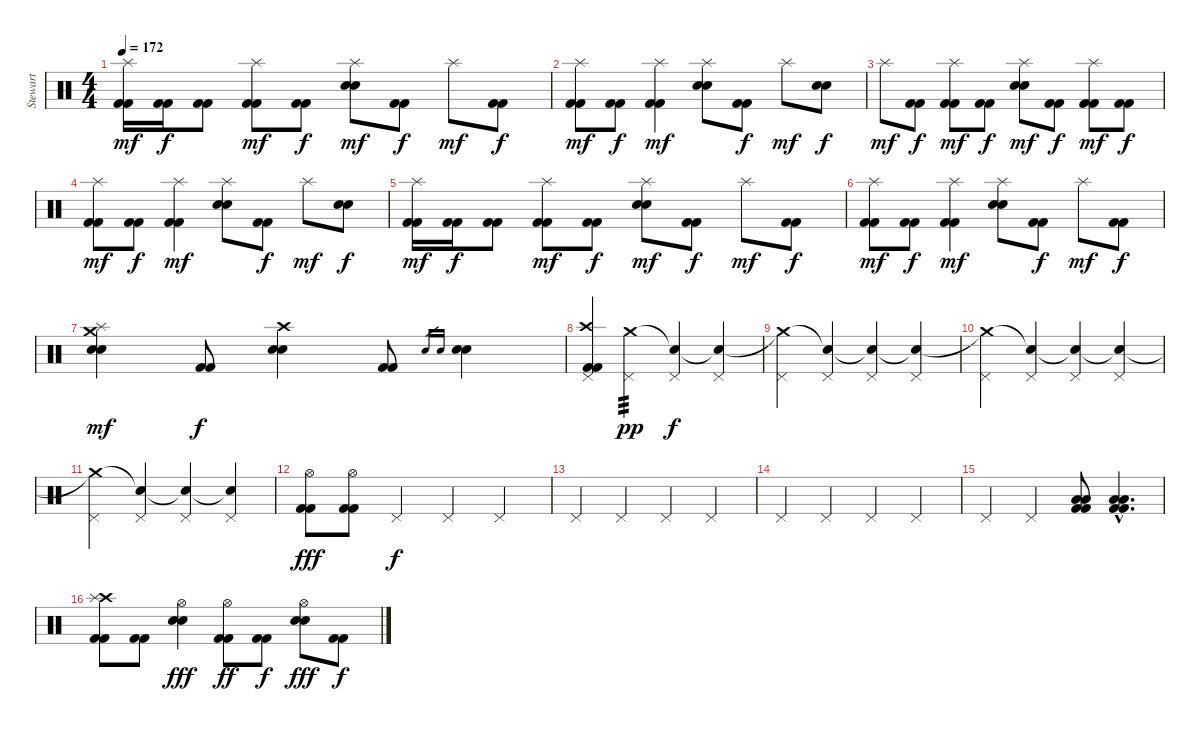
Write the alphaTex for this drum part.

\track ("Stewart" "Stewart") {instrument percussion}
\staff {score}
\articulation defaults
\ts (4 4)
\tempo 172
\clef neutral
\ks c
("Splash (hit)" "Kick (hit) 2" "Kick (hit) 2").16{dy mf} ("Kick (hit) 2" "Kick (hit) 2").16{dy f} ("Kick (hit) 2" "Kick (hit) 2").8 ("Splash (hit)" "Kick (hit) 2" "Kick (hit) 2").8{dy mf} ("Kick (hit) 2" "Kick (hit) 2").8{dy f} ("Splash (hit)" "Electric Snare (hit)" "Electric Snare (hit)").8{dy mf} ("Kick (hit) 2" "Kick (hit) 2").8{dy f} "Splash (hit)".8{dy mf} ("Kick (hit) 2" "Kick (hit) 2").8{dy f} |
("Splash (hit)" "Kick (hit) 2" "Kick (hit) 2").8{dy mf} ("Kick (hit) 2" "Kick (hit) 2").8{dy f} ("Splash (hit)" "Kick (hit) 2" "Kick (hit) 2").4{dy mf} ("Splash (hit)" "Electric Snare (hit)" "Electric Snare (hit)").8 ("Kick (hit) 2" "Kick (hit) 2").8{dy f} "Splash (hit)".8{dy mf} ("Electric Snare (hit)" "Electric Snare (hit)").8{dy f} |
"Splash (hit)".8{dy mf} ("Kick (hit) 2" "Kick (hit) 2").8{dy f} ("Splash (hit)" "Kick (hit) 2" "Kick (hit) 2").8{dy mf} ("Kick (hit) 2" "Kick (hit) 2").8{dy f} ("Splash (hit)" "Electric Snare (hit)" "Electric Snare (hit)").8{dy mf} ("Kick (hit) 2" "Kick (hit) 2").8{dy f} ("Splash (hit)" "Kick (hit) 2" "Kick (hit) 2").8{dy mf} ("Kick (hit) 2" "Kick (hit) 2").8{dy f} |
("Splash (hit)" "Kick (hit) 2" "Kick (hit) 2").8{dy mf} ("Kick (hit) 2" "Kick (hit) 2").8{dy f} ("Splash (hit)" "Kick (hit) 2" "Kick (hit) 2").4{dy mf} ("Splash (hit)" "Electric Snare (hit)" "Electric Snare (hit)").8 ("Kick (hit) 2" "Kick (hit) 2").8{dy f} "Splash (hit)".8{dy mf} ("Electric Snare (hit)" "Electric Snare (hit)").8{dy f} |
("Splash (hit)" "Kick (hit) 2" "Kick (hit) 2").16{dy mf} ("Kick (hit) 2" "Kick (hit) 2").16{dy f} ("Kick (hit) 2" "Kick (hit) 2").8 ("Splash (hit)" "Kick (hit) 2" "Kick (hit) 2").8{dy mf} ("Kick (hit) 2" "Kick (hit) 2").8{dy f} ("Splash (hit)" "Electric Snare (hit)" "Electric Snare (hit)").8{dy mf} ("Kick (hit) 2" "Kick (hit) 2").8{dy f} "Splash (hit)".8{dy mf} ("Kick (hit) 2" "Kick (hit) 2").8{dy f} |
("Splash (hit)" "Kick (hit) 2" "Kick (hit) 2").8{dy mf} ("Kick (hit) 2" "Kick (hit) 2").8{dy f} ("Splash (hit)" "Kick (hit) 2" "Kick (hit) 2").4{dy mf} ("Splash (hit)" "Electric Snare (hit)" "Electric Snare (hit)").8 ("Kick (hit) 2" "Kick (hit) 2").8{dy f} "Splash (hit)".8{dy mf} ("Kick (hit) 2" "Kick (hit) 2").8{dy f} |
("Crash medium (hit)" "Splash (hit)" "Electric Snare (hit)" "Electric Snare (hit)").4{dy mf} ("Kick (hit) 2" "Kick (hit) 2").8{dy f} ("Crash high (hit)" "Electric Snare (hit)" "Electric Snare (hit)").4 ("Kick (hit) 2" "Kick (hit) 2").8 "Electric Snare (hit)".16{gr} "Electric Snare (hit)".16{gr} ("Electric Snare (hit)" "Electric Snare (hit)").4 |
("Crash high (hit)" "Pedal Hi-Hat (hit)" "Kick (hit) 2" "Kick (hit) 2").4 ("Crash medium (hit)" "Pedal Hi-Hat (hit)").4{tp 3 dy pp} ("Snare (hit)"{t} "Pedal Hi-Hat (hit)").4{dy f} ("Snare (hit)"{t} "Pedal Hi-Hat (hit)").4 |
("Crash medium (hit)"{t} "Pedal Hi-Hat (hit)").4 ("Snare (hit)"{t} "Pedal Hi-Hat (hit)").4 ("Snare (hit)"{t} "Pedal Hi-Hat (hit)").4 ("Snare (hit)"{t} "Pedal Hi-Hat (hit)").4 |
("Crash medium (hit)"{t} "Pedal Hi-Hat (hit)").4 ("Snare (hit)"{t} "Pedal Hi-Hat (hit)").4 ("Snare (hit)"{t} "Pedal Hi-Hat (hit)").4 ("Snare (hit)"{t} "Pedal Hi-Hat (hit)").4 |
("Crash medium (hit)"{t} "Pedal Hi-Hat (hit)").4 ("Snare (hit)"{t} "Pedal Hi-Hat (hit)").4 ("Snare (hit)"{t} "Pedal Hi-Hat (hit)").4 ("Snare (hit)"{t} "Pedal Hi-Hat (hit)").4 |
("Hi-Hat (open)" "Kick (hit) 2" "Kick (hit) 2").8{dy fff} ("Hi-Hat (open)" "Kick (hit) 2" "Kick (hit) 2").8 "Pedal Hi-Hat (hit)".4{dy f} "Pedal Hi-Hat (hit)".4 "Pedal Hi-Hat (hit)".4 |
"Pedal Hi-Hat (hit)".4 "Pedal Hi-Hat (hit)".4 "Pedal Hi-Hat (hit)".4 "Pedal Hi-Hat (hit)".4 |
"Pedal Hi-Hat (hit)".4 "Pedal Hi-Hat (hit)".4 "Pedal Hi-Hat (hit)".4 "Pedal Hi-Hat (hit)".4 |
"Pedal Hi-Hat (hit)".4 "Pedal Hi-Hat (hit)".4 ("Low Tom (hit)" "Low Floor Tom (hit)" "Kick (hit) 2" "Kick (hit) 2").8 ("Low Tom (hit)"{hac} "Low Floor Tom (hit)"{hac} "Kick (hit) 2"{hac} "Kick (hit) 2"{hac}).4{d} |
("Crash high (hit)" "Splash (hit)" "Kick (hit) 2" "Kick (hit) 2").8 ("Kick (hit) 2" "Kick (hit) 2").8 ("Hi-Hat (open)" "Electric Snare (hit)" "Electric Snare (hit)").4{dy fff} ("Hi-Hat (open)" "Kick (hit) 2" "Kick (hit) 2").8{dy ff} ("Kick (hit) 2" "Kick (hit) 2").8{dy f} ("Hi-Hat (open)" "Electric Snare (hit)" "Electric Snare (hit)").8{dy fff} ("Kick (hit) 2" "Kick (hit) 2").8{dy f}
